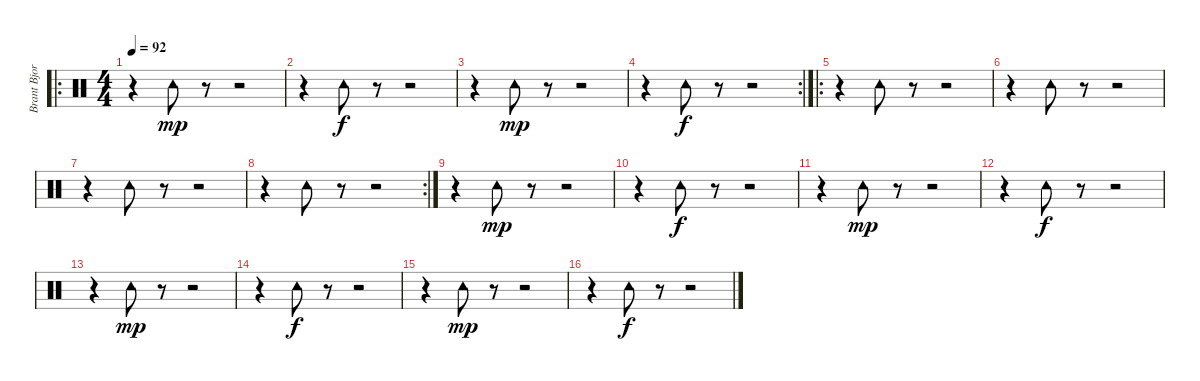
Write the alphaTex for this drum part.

\track ("Brant Bjork - Drums" "Brant Bjor") {instrument percussion}
\staff {score}
\articulation defaults
\ro
\ts (4 4)
\tempo 92
\clef neutral
\ks c
r.4{dy f} "Tambourine (hit)".8{dy mp} r.8 r.2 |
r.4 "Tambourine (hit)".8{dy f} r.8 r.2 |
r.4 "Tambourine (hit)".8{dy mp} r.8 r.2 |
\rc 2
r.4 "Tambourine (hit)".8{dy f} r.8 r.2 |
\ro
r.4 "Tambourine (hit)".8 r.8 r.2 |
r.4 "Tambourine (hit)".8 r.8 r.2 |
r.4 "Tambourine (hit)".8 r.8 r.2 |
\rc 2
r.4 "Tambourine (hit)".8 r.8 r.2 |
r.4 "Tambourine (hit)".8{dy mp} r.8 r.2 |
r.4 "Tambourine (hit)".8{dy f} r.8 r.2 |
r.4 "Tambourine (hit)".8{dy mp} r.8 r.2 |
r.4 "Tambourine (hit)".8{dy f} r.8 r.2 |
r.4 "Tambourine (hit)".8{dy mp} r.8 r.2 |
r.4 "Tambourine (hit)".8{dy f} r.8 r.2 |
r.4 "Tambourine (hit)".8{dy mp} r.8 r.2 |
r.4 "Tambourine (hit)".8{dy f} r.8 r.2
